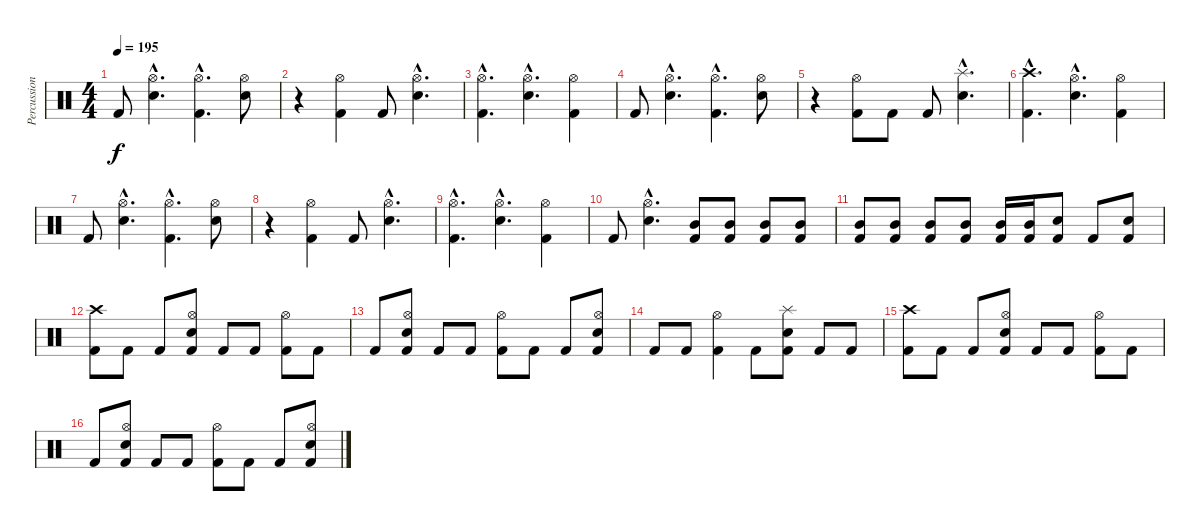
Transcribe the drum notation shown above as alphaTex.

\track ("Percussion" "Percussion") {instrument percussion}
\staff {score}
\articulation defaults
\ts (4 4)
\tempo 195
\clef neutral
\ks c "Kick (hit) 2".8{dy f}
("Hi-Hat (open)"{hac} "Snare (hit) 2"{hac}).4{d} ("Hi-Hat (open)"{hac} "Kick (hit) 2"{hac}).4{d} ("Hi-Hat (open)" "Snare (hit) 2").8 |
r.4 ("Hi-Hat (open)" "Kick (hit) 2").4 "Kick (hit) 2".8 ("Hi-Hat (open)"{hac} "Snare (hit) 2"{hac}).4{d} |
("Hi-Hat (open)"{hac} "Kick (hit) 2"{hac}).4{d} ("Hi-Hat (open)"{hac} "Snare (hit) 2"{hac}).4{d} ("Hi-Hat (open)" "Kick (hit) 2").4 |
"Kick (hit) 2".8 ("Hi-Hat (open)"{hac} "Snare (hit) 2"{hac}).4{d} ("Hi-Hat (open)"{hac} "Kick (hit) 2"{hac}).4{d} ("Hi-Hat (open)" "Snare (hit) 2").8 |
r.4 ("Hi-Hat (open)" "Kick (hit) 2").8 "Kick (hit) 2".8 "Kick (hit) 2".8 ("Splash (hit)"{hac} "Snare (hit) 2"{hac}).4{d} |
("Crash high (hit)"{hac} "Kick (hit) 2"{hac}).4{d} ("Hi-Hat (open)"{hac} "Snare (hit) 2"{hac}).4{d} ("Hi-Hat (open)" "Kick (hit) 2").4 |
"Kick (hit) 2".8 ("Hi-Hat (open)"{hac} "Snare (hit) 2"{hac}).4{d} ("Hi-Hat (open)"{hac} "Kick (hit) 2"{hac}).4{d} ("Hi-Hat (open)" "Snare (hit) 2").8 |
r.4 ("Hi-Hat (open)" "Kick (hit) 2").4 "Kick (hit) 2".8 ("Hi-Hat (open)"{hac} "Snare (hit) 2"{hac}).4{d} |
("Hi-Hat (open)"{hac} "Kick (hit) 2"{hac}).4{d} ("Hi-Hat (open)"{hac} "Snare (hit) 2"{hac}).4{d} ("Hi-Hat (open)" "Kick (hit) 2").4 |
"Kick (hit) 2".8 ("Hi-Hat (open)"{hac} "Snare (hit) 2"{hac}).4{d} ("Mid Tom (hit)" "Kick (hit) 2").8 ("Mid Tom (hit)" "Kick (hit) 2").8 ("Mid Tom (hit)" "Kick (hit) 2").8 ("Mid Tom (hit)" "Kick (hit) 2").8 |
("Mid Tom (hit)" "Kick (hit) 2").8 ("Mid Tom (hit)" "Kick (hit) 2").8 ("Mid Tom (hit)" "Kick (hit) 2").8 ("Mid Tom (hit)" "Kick (hit) 2").8 ("Mid Tom (hit)" "Kick (hit) 2").16 ("Mid Tom (hit)" "Kick (hit) 2").16 ("Snare (hit) 2" "Kick (hit) 2").8 "Kick (hit) 2".8 ("Snare (hit) 2" "Kick (hit) 2").8 |
("Crash high (hit)" "Kick (hit) 2").8 "Kick (hit) 2".8 "Kick (hit) 2".8 ("Hi-Hat (open)" "Snare (hit) 2" "Kick (hit) 2").8 "Kick (hit) 2".8 "Kick (hit) 2".8 ("Hi-Hat (open)" "Kick (hit) 2").8 "Kick (hit) 2".8 |
"Kick (hit) 2".8 ("Hi-Hat (open)" "Snare (hit) 2" "Kick (hit) 2").8 "Kick (hit) 2".8 "Kick (hit) 2".8 ("Hi-Hat (open)" "Kick (hit) 2").8 "Kick (hit) 2".8 "Kick (hit) 2".8 ("Hi-Hat (open)" "Snare (hit) 2" "Kick (hit) 2").8 |
"Kick (hit) 2".8 "Kick (hit) 2".8 ("Hi-Hat (open)" "Kick (hit) 2").4 "Kick (hit) 2".8 ("Splash (hit)" "Snare (hit) 2" "Kick (hit) 2").8 "Kick (hit) 2".8 "Kick (hit) 2".8 |
("Crash high (hit)" "Kick (hit) 2").8 "Kick (hit) 2".8 "Kick (hit) 2".8 ("Hi-Hat (open)" "Snare (hit) 2" "Kick (hit) 2").8 "Kick (hit) 2".8 "Kick (hit) 2".8 ("Hi-Hat (open)" "Kick (hit) 2").8 "Kick (hit) 2".8 |
"Kick (hit) 2".8 ("Hi-Hat (open)" "Snare (hit) 2" "Kick (hit) 2").8 "Kick (hit) 2".8 "Kick (hit) 2".8 ("Hi-Hat (open)" "Kick (hit) 2").8 "Kick (hit) 2".8 "Kick (hit) 2".8 ("Hi-Hat (open)" "Snare (hit) 2" "Kick (hit) 2").8
